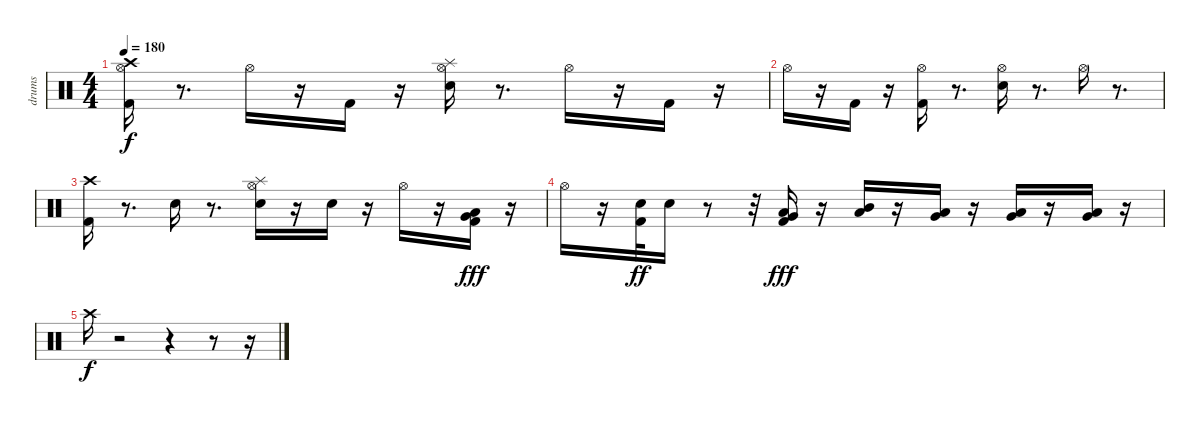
\track ("drums" "drums") {instrument percussion}
\staff {score}
\articulation defaults
\ts (4 4)
\tempo 180
\clef neutral
\ks c
("Crash high (hit)" "Kick (hit) 2" "Hi-Hat (open)").16{dy f} r.8{d} "Hi-Hat (open)".16 r.16 "Kick (hit) 2".16 r.16 ("Splash (hit)" "Electric Snare (hit)" "Hi-Hat (open)").16 r.8{d} "Hi-Hat (open)".16 r.16 "Kick (hit) 2".16 r.16 |
"Hi-Hat (open)".16 r.16 "Kick (hit) 2".16 r.16 ("Hi-Hat (open)" "Kick (hit) 2").16 r.8{d} ("Hi-Hat (open)" "Electric Snare (hit)").16 r.8{d} "Hi-Hat (open)".16 r.8{d} |
("Crash high (hit)" "Kick (hit) 2").16 r.8{d} "Electric Snare (hit)".16 r.8{d} ("Splash (hit)" "Hi-Hat (open)" "Electric Snare (hit)").16 r.16 "Electric Snare (hit)".16 r.16 "Hi-Hat (open)".16 r.16 ("Very Low Tom (hit)" "Low Floor Tom (hit)" "Kick (hit) 2").16{dy fff} r.16 |
"Hi-Hat (open)".16 r.16 ("Electric Snare (hit)" "Kick (hit) 2").32{dy ff} "Electric Snare (hit)".16 r.8 r.32 ("Low Tom (hit)" "Very Low Tom (hit)" "Kick (hit) 2").16{dy fff} r.16 ("Low Tom (hit)" "Mid Tom (hit)").16 r.16 ("Very Low Tom (hit)" "Low Tom (hit)").16 r.16 ("Low Tom (hit)" "Very Low Tom (hit)").16 r.16 ("Very Low Tom (hit)" "Low Floor Tom (hit)").16 r.16 |
"Crash high (hit)".16{dy f} r.2 r.4 r.8 r.16
